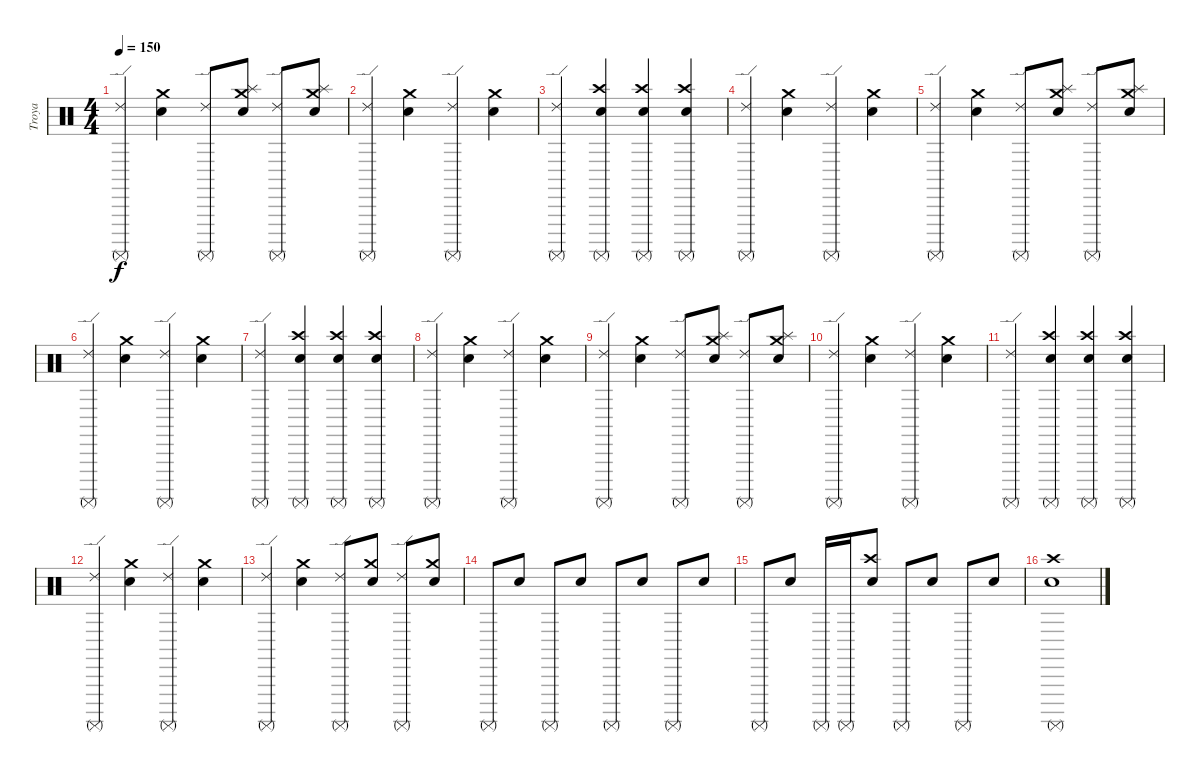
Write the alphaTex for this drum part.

\track ("Troya" "Troya") {instrument percussion}
\staff {score}
\articulation defaults
\ts (4 4)
\tempo 150
\clef neutral
\ks c
("Ride (edge) 2" "Surdo (mute)").4{dy f} ("Crash medium (hit)" "Electric Snare (hit)").4 ("Ride (edge) 2" "Surdo (mute)").8 ("Splash (hit)" "Crash medium (hit)" "Electric Snare (hit)").8 ("Ride (edge) 2" "Surdo (mute)").8 ("Splash (hit)" "Crash medium (hit)" "Electric Snare (hit)").8 |
("Ride (edge) 2" "Surdo (mute)").4 ("Crash medium (hit)" "Electric Snare (hit)").4 ("Ride (edge) 2" "Surdo (mute)").4 ("Crash medium (hit)" "Electric Snare (hit)").4 |
("Ride (edge) 2" "Surdo (mute)").4 ("Surdo (mute)" "Crash high (hit)" "Electric Snare (hit)").4 ("Surdo (mute)" "Crash high (hit)" "Electric Snare (hit)").4 ("Surdo (mute)" "Crash high (hit)" "Electric Snare (hit)").4 |
("Ride (edge) 2" "Surdo (mute)").4 ("Crash medium (hit)" "Electric Snare (hit)").4 ("Ride (edge) 2" "Surdo (mute)").4 ("Crash medium (hit)" "Electric Snare (hit)").4 |
("Ride (edge) 2" "Surdo (mute)").4 ("Crash medium (hit)" "Electric Snare (hit)").4 ("Ride (edge) 2" "Surdo (mute)").8 ("Splash (hit)" "Crash medium (hit)" "Electric Snare (hit)").8 ("Ride (edge) 2" "Surdo (mute)").8 ("Splash (hit)" "Crash medium (hit)" "Electric Snare (hit)").8 |
("Ride (edge) 2" "Surdo (mute)").4 ("Crash medium (hit)" "Electric Snare (hit)").4 ("Ride (edge) 2" "Surdo (mute)").4 ("Crash medium (hit)" "Electric Snare (hit)").4 |
("Ride (edge) 2" "Surdo (mute)").4 ("Surdo (mute)" "Crash high (hit)" "Electric Snare (hit)").4 ("Surdo (mute)" "Crash high (hit)" "Electric Snare (hit)").4 ("Surdo (mute)" "Crash high (hit)" "Electric Snare (hit)").4 |
("Ride (edge) 2" "Surdo (mute)").4 ("Crash medium (hit)" "Electric Snare (hit)").4 ("Ride (edge) 2" "Surdo (mute)").4 ("Crash medium (hit)" "Electric Snare (hit)").4 |
("Ride (edge) 2" "Surdo (mute)").4 ("Crash medium (hit)" "Electric Snare (hit)").4 ("Ride (edge) 2" "Surdo (mute)").8 ("Splash (hit)" "Crash medium (hit)" "Electric Snare (hit)").8 ("Ride (edge) 2" "Surdo (mute)").8 ("Splash (hit)" "Crash medium (hit)" "Electric Snare (hit)").8 |
("Ride (edge) 2" "Surdo (mute)").4 ("Crash medium (hit)" "Electric Snare (hit)").4 ("Ride (edge) 2" "Surdo (mute)").4 ("Crash medium (hit)" "Electric Snare (hit)").4 |
("Ride (edge) 2" "Surdo (mute)").4 ("Surdo (mute)" "Crash high (hit)" "Electric Snare (hit)").4 ("Surdo (mute)" "Crash high (hit)" "Electric Snare (hit)").4 ("Surdo (mute)" "Crash high (hit)" "Electric Snare (hit)").4 |
("Ride (edge) 2" "Surdo (mute)").4 ("Crash medium (hit)" "Electric Snare (hit)").4 ("Ride (edge) 2" "Surdo (mute)").4 ("Crash medium (hit)" "Electric Snare (hit)").4 |
("Ride (edge) 2" "Surdo (mute)").4 ("Crash medium (hit)" "Electric Snare (hit)").4 ("Ride (edge) 2" "Surdo (mute)").8 ("Crash medium (hit)" "Electric Snare (hit)").8 ("Ride (edge) 2" "Surdo (mute)").8 ("Crash medium (hit)" "Electric Snare (hit)").8 |
"Surdo (mute)".8 "Electric Snare (hit)".8 "Surdo (mute)".8 "Electric Snare (hit)".8 "Surdo (mute)".8 "Electric Snare (hit)".8 "Surdo (mute)".8 "Electric Snare (hit)".8 |
"Surdo (mute)".8 "Electric Snare (hit)".8 "Surdo (mute)".16 "Surdo (mute)".16 ("Crash high (hit)" "Electric Snare (hit)").8 "Surdo (mute)".8 "Electric Snare (hit)".8 "Surdo (mute)".8 "Electric Snare (hit)".8 |
("Crash high (hit)" "Electric Snare (hit)" "Surdo (mute)").1
